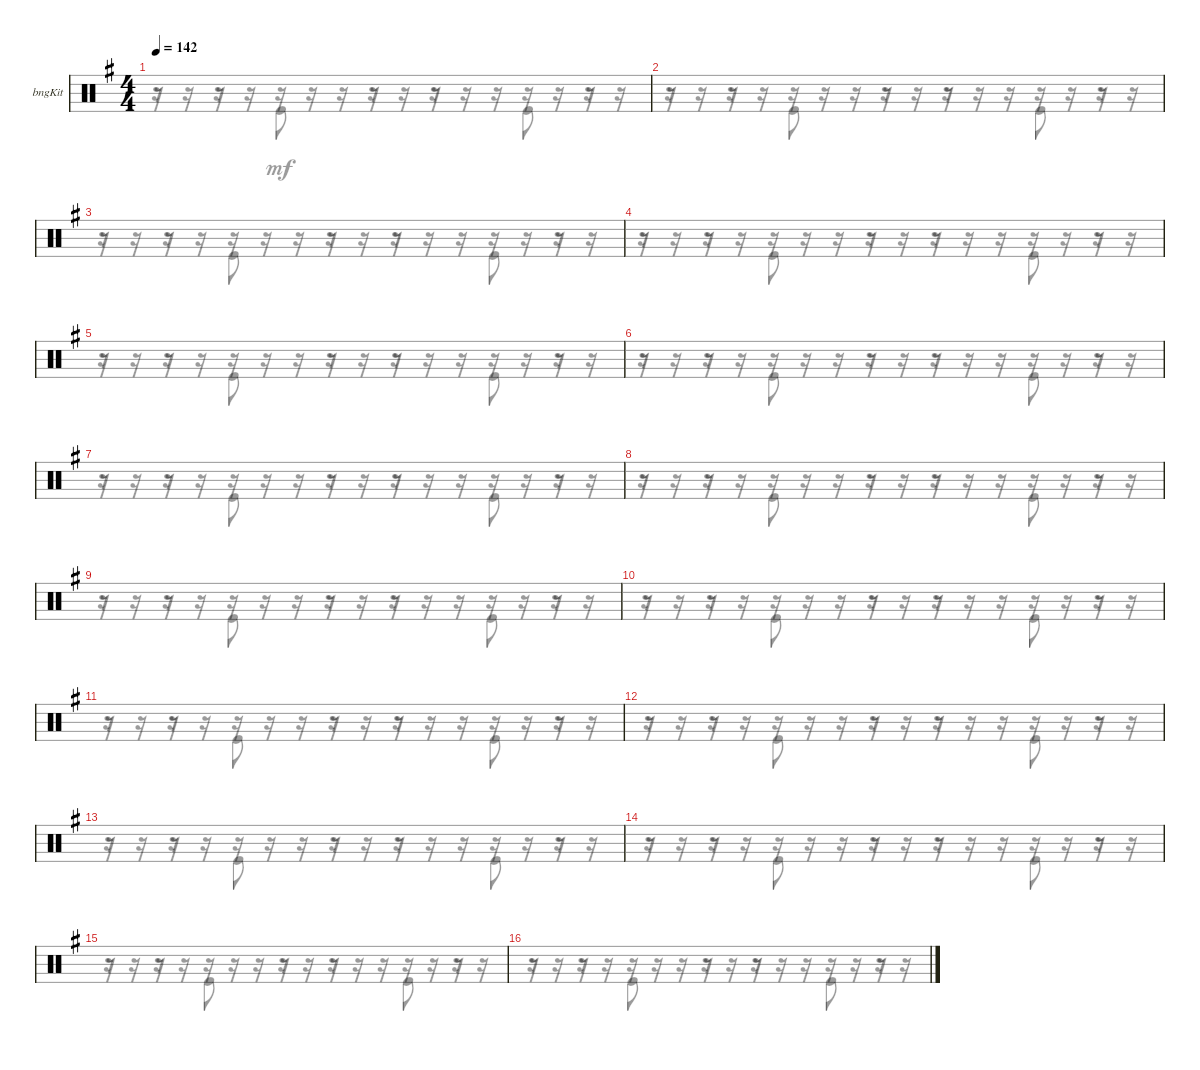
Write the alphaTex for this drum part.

\bracketExtendMode groupsimilarinstruments
\firstSystemTrackNameOrientation horizontal
\otherSystemsTrackNameOrientation horizontal
\track ("Bongos" "bngKit") {instrument percussion}
\staff {score}
\articulation defaults
\voice
\ts (4 4)
\tempo 142
\clef neutral
\ks eminor
|
|
|
|
|
|
|
|
|
|
|
|
|
|
|
\voice
\clef neutral
\ks eminor
r.16{dy mf} r.16 r.16 r.16 r.16 r.16 r.16 r.16 r.16 r.16 r.16 r.16 r.16 r.16 r.16 r.16 |
r.16 r.16 r.16 r.16 r.16 r.16 r.16 r.16 r.16 r.16 r.16 r.16 r.16 r.16 r.16 r.16 |
r.16 r.16 r.16 r.16 r.16 r.16 r.16 r.16 r.16 r.16 r.16 r.16 r.16 r.16 r.16 r.16 |
r.16 r.16 r.16 r.16 r.16 r.16 r.16 r.16 r.16 r.16 r.16 r.16 r.16 r.16 r.16 r.16 |
r.16 r.16 r.16 r.16 r.16 r.16 r.16 r.16 r.16 r.16 r.16 r.16 r.16 r.16 r.16 r.16 |
r.16 r.16 r.16 r.16 r.16 r.16 r.16 r.16 r.16 r.16 r.16 r.16 r.16 r.16 r.16 r.16 |
r.16 r.16 r.16 r.16 r.16 r.16 r.16 r.16 r.16 r.16 r.16 r.16 r.16 r.16 r.16 r.16 |
r.16 r.16 r.16 r.16 r.16 r.16 r.16 r.16 r.16 r.16 r.16 r.16 r.16 r.16 r.16 r.16 |
r.16 r.16 r.16 r.16 r.16 r.16 r.16 r.16 r.16 r.16 r.16 r.16 r.16 r.16 r.16 r.16 |
r.16 r.16 r.16 r.16 r.16 r.16 r.16 r.16 r.16 r.16 r.16 r.16 r.16 r.16 r.16 r.16 |
r.16 r.16 r.16 r.16 r.16 r.16 r.16 r.16 r.16 r.16 r.16 r.16 r.16 r.16 r.16 r.16 |
r.16 r.16 r.16 r.16 r.16 r.16 r.16 r.16 r.16 r.16 r.16 r.16 r.16 r.16 r.16 r.16 |
r.16 r.16 r.16 r.16 r.16 r.16 r.16 r.16 r.16 r.16 r.16 r.16 r.16 r.16 r.16 r.16 |
r.16 r.16 r.16 r.16 r.16 r.16 r.16 r.16 r.16 r.16 r.16 r.16 r.16 r.16 r.16 r.16 |
r.16 r.16 r.16 r.16 r.16 r.16 r.16 r.16 r.16 r.16 r.16 r.16 r.16 r.16 r.16 r.16 |
r.16 r.16 r.16 r.16 r.16 r.16 r.16 r.16 r.16 r.16 r.16 r.16 r.16 r.16 r.16 r.16
\voice
\clef neutral
\ottava regular
\simile none
\ks eminor
r.16{dy mf} r.16 r.16 r.16 r.16 r.16 r.16 r.16 r.16 r.16 r.16 r.16 r.16 r.16 r.16 r.16 |
r.16 r.16 r.16 r.16 r.16 r.16 r.16 r.16 r.16 r.16 r.16 r.16 r.16 r.16 r.16 r.16 |
r.16 r.16 r.16 r.16 r.16 r.16 r.16 r.16 r.16 r.16 r.16 r.16 r.16 r.16 r.16 r.16 |
r.16 r.16 r.16 r.16 r.16 r.16 r.16 r.16 r.16 r.16 r.16 r.16 r.16 r.16 r.16 r.16 |
r.16 r.16 r.16 r.16 r.16 r.16 r.16 r.16 r.16 r.16 r.16 r.16 r.16 r.16 r.16 r.16 |
r.16 r.16 r.16 r.16 r.16 r.16 r.16 r.16 r.16 r.16 r.16 r.16 r.16 r.16 r.16 r.16 |
r.16 r.16 r.16 r.16 r.16 r.16 r.16 r.16 r.16 r.16 r.16 r.16 r.16 r.16 r.16 r.16 |
r.16 r.16 r.16 r.16 r.16 r.16 r.16 r.16 r.16 r.16 r.16 r.16 r.16 r.16 r.16 r.16 |
r.16 r.16 r.16 r.16 r.16 r.16 r.16 r.16 r.16 r.16 r.16 r.16 r.16 r.16 r.16 r.16 |
r.16 r.16 r.16 r.16 r.16 r.16 r.16 r.16 r.16 r.16 r.16 r.16 r.16 r.16 r.16 r.16 |
r.16 r.16 r.16 r.16 r.16 r.16 r.16 r.16 r.16 r.16 r.16 r.16 r.16 r.16 r.16 r.16 |
r.16 r.16 r.16 r.16 r.16 r.16 r.16 r.16 r.16 r.16 r.16 r.16 r.16 r.16 r.16 r.16 |
r.16 r.16 r.16 r.16 r.16 r.16 r.16 r.16 r.16 r.16 r.16 r.16 r.16 r.16 r.16 r.16 |
r.16 r.16 r.16 r.16 r.16 r.16 r.16 r.16 r.16 r.16 r.16 r.16 r.16 r.16 r.16 r.16 |
r.16 r.16 r.16 r.16 r.16 r.16 r.16 r.16 r.16 r.16 r.16 r.16 r.16 r.16 r.16 r.16 |
r.16 r.16 r.16 r.16 r.16 r.16 r.16 r.16 r.16 r.16 r.16 r.16 r.16 r.16 r.16 r.16
\voice
\clef neutral
\ottava regular
\simile none
\ks eminor
r.8{dy mf} r.8 "Kick (hit)".8 r.16 r.8 r.8 r.16 "Kick (hit)".8 r.8 |
r.8 r.8 "Kick (hit)".8 r.16 r.8 r.8 r.16 "Kick (hit)".8 r.8 |
r.8 r.8 "Kick (hit)".8 r.16 r.8 r.8 r.16 "Kick (hit)".8 r.8 |
r.8 r.8 "Kick (hit)".8 r.16 r.8 r.8 r.16 "Kick (hit)".8 r.8 |
r.8 r.8 "Kick (hit)".8 r.16 r.8 r.8 r.16 "Kick (hit)".8 r.8 |
r.8 r.8 "Kick (hit)".8 r.16 r.8 r.8 r.16 "Kick (hit)".8 r.8 |
r.8 r.8 "Kick (hit)".8 r.16 r.8 r.8 r.16 "Kick (hit)".8 r.8 |
r.8 r.8 "Kick (hit)".8 r.16 r.8 r.8 r.16 "Kick (hit)".8 r.8 |
r.8 r.8 "Kick (hit)".8 r.16 r.8 r.8 r.16 "Kick (hit)".8 r.8 |
r.8 r.8 "Kick (hit)".8 r.16 r.8 r.8 r.16 "Kick (hit)".8 r.8 |
r.8 r.8 "Kick (hit)".8 r.16 r.8 r.8 r.16 "Kick (hit)".8 r.8 |
r.8 r.8 "Kick (hit)".8 r.16 r.8 r.8 r.16 "Kick (hit)".8 r.8 |
r.8 r.8 "Kick (hit)".8 r.16 r.8 r.8 r.16 "Kick (hit)".8 r.8 |
r.8 r.8 "Kick (hit)".8 r.16 r.8 r.8 r.16 "Kick (hit)".8 r.8 |
r.8 r.8 "Kick (hit)".8 r.16 r.8 r.8 r.16 "Kick (hit)".8 r.8 |
r.8 r.8 "Kick (hit)".8 r.16 r.8 r.8 r.16 "Kick (hit)".8 r.8
